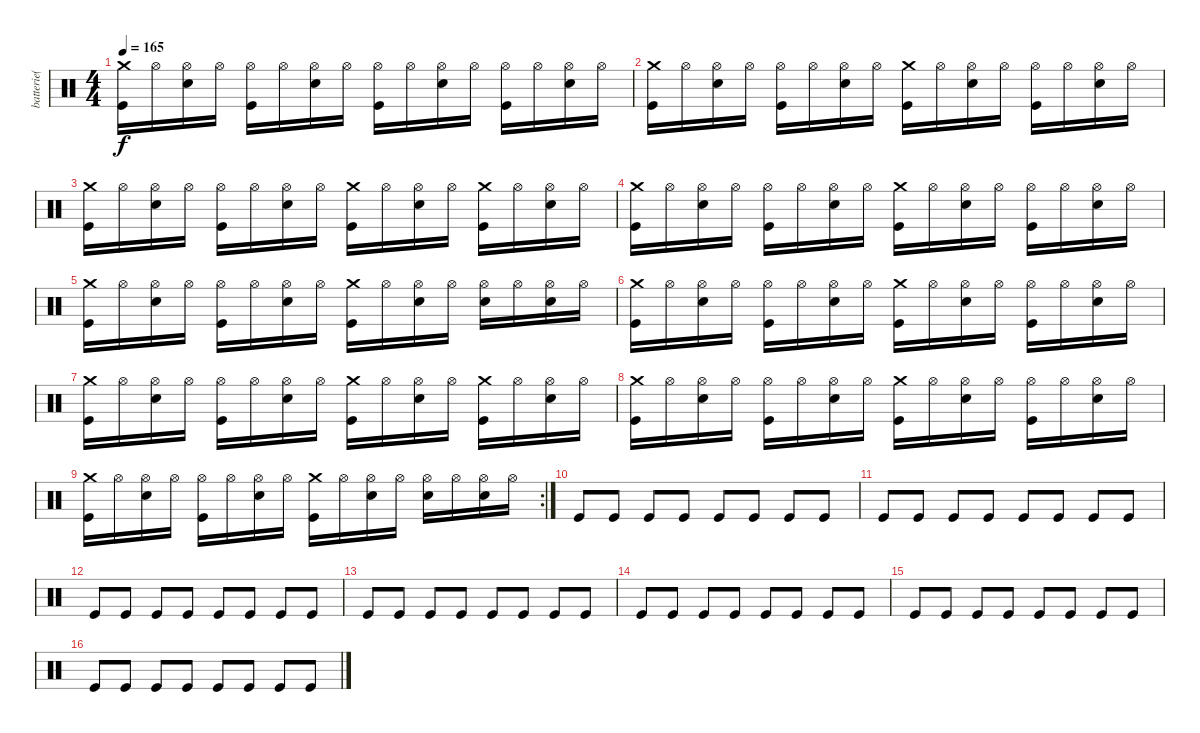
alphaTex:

\track ("batterie( Shawn )" "batterie( ") {instrument percussion}
\staff {score}
\articulation defaults
\ts (4 4)
\tempo 165
\clef neutral
\ks c
("Crash medium (hit)" "Kick (hit)").16{dy f} "Hi-Hat (open)".16 ("Hi-Hat (open)" "Snare (hit) 2").16 "Hi-Hat (open)".16 ("Hi-Hat (open)" "Kick (hit)").16 "Hi-Hat (open)".16 ("Hi-Hat (open)" "Snare (hit) 2").16 "Hi-Hat (open)".16 ("Hi-Hat (open)" "Kick (hit)").16 "Hi-Hat (open)".16 ("Hi-Hat (open)" "Snare (hit) 2").16 "Hi-Hat (open)".16 ("Hi-Hat (open)" "Kick (hit)").16 "Hi-Hat (open)".16 ("Hi-Hat (open)" "Snare (hit) 2").16 "Hi-Hat (open)".16 |
("Crash medium (hit)" "Kick (hit)").16 "Hi-Hat (open)".16 ("Hi-Hat (open)" "Snare (hit) 2").16 "Hi-Hat (open)".16 ("Hi-Hat (open)" "Kick (hit)").16 "Hi-Hat (open)".16 ("Hi-Hat (open)" "Snare (hit) 2").16 "Hi-Hat (open)".16 ("Crash medium (hit)" "Kick (hit)").16 "Hi-Hat (open)".16 ("Hi-Hat (open)" "Snare (hit) 2").16 "Hi-Hat (open)".16 ("Hi-Hat (open)" "Kick (hit)").16 "Hi-Hat (open)".16 ("Hi-Hat (open)" "Snare (hit) 2").16 "Hi-Hat (open)".16 |
("Crash medium (hit)" "Kick (hit)").16 "Hi-Hat (open)".16 ("Hi-Hat (open)" "Snare (hit) 2").16 "Hi-Hat (open)".16 ("Hi-Hat (open)" "Kick (hit)").16 "Hi-Hat (open)".16 ("Hi-Hat (open)" "Snare (hit) 2").16 "Hi-Hat (open)".16 ("Crash medium (hit)" "Kick (hit)").16 "Hi-Hat (open)".16 ("Hi-Hat (open)" "Snare (hit) 2").16 "Hi-Hat (open)".16 ("Crash medium (hit)" "Kick (hit)").16 "Hi-Hat (open)".16 ("Hi-Hat (open)" "Snare (hit) 2").16 "Hi-Hat (open)".16 |
("Crash medium (hit)" "Kick (hit)").16 "Hi-Hat (open)".16 ("Hi-Hat (open)" "Snare (hit) 2").16 "Hi-Hat (open)".16 ("Hi-Hat (open)" "Kick (hit)").16 "Hi-Hat (open)".16 ("Hi-Hat (open)" "Snare (hit) 2").16 "Hi-Hat (open)".16 ("Crash medium (hit)" "Kick (hit)").16 "Hi-Hat (open)".16 ("Hi-Hat (open)" "Snare (hit) 2").16 "Hi-Hat (open)".16 ("Hi-Hat (open)" "Kick (hit)").16 "Hi-Hat (open)".16 ("Hi-Hat (open)" "Snare (hit) 2").16 "Hi-Hat (open)".16 |
("Crash medium (hit)" "Kick (hit)").16 "Hi-Hat (open)".16 ("Hi-Hat (open)" "Snare (hit) 2").16 "Hi-Hat (open)".16 ("Hi-Hat (open)" "Kick (hit)").16 "Hi-Hat (open)".16 ("Hi-Hat (open)" "Snare (hit) 2").16 "Hi-Hat (open)".16 ("Crash medium (hit)" "Kick (hit)").16 "Hi-Hat (open)".16 ("Hi-Hat (open)" "Snare (hit) 2").16 "Hi-Hat (open)".16 ("Hi-Hat (open)" "Snare (hit) 2").16 "Hi-Hat (open)".16 ("Hi-Hat (open)" "Snare (hit) 2").16 "Hi-Hat (open)".16 |
("Crash medium (hit)" "Kick (hit)").16 "Hi-Hat (open)".16 ("Hi-Hat (open)" "Snare (hit) 2").16 "Hi-Hat (open)".16 ("Hi-Hat (open)" "Kick (hit)").16 "Hi-Hat (open)".16 ("Hi-Hat (open)" "Snare (hit) 2").16 "Hi-Hat (open)".16 ("Crash medium (hit)" "Kick (hit)").16 "Hi-Hat (open)".16 ("Hi-Hat (open)" "Snare (hit) 2").16 "Hi-Hat (open)".16 ("Hi-Hat (open)" "Kick (hit)").16 "Hi-Hat (open)".16 ("Hi-Hat (open)" "Snare (hit) 2").16 "Hi-Hat (open)".16 |
("Crash medium (hit)" "Kick (hit)").16 "Hi-Hat (open)".16 ("Hi-Hat (open)" "Snare (hit) 2").16 "Hi-Hat (open)".16 ("Hi-Hat (open)" "Kick (hit)").16 "Hi-Hat (open)".16 ("Hi-Hat (open)" "Snare (hit) 2").16 "Hi-Hat (open)".16 ("Crash medium (hit)" "Kick (hit)").16 "Hi-Hat (open)".16 ("Hi-Hat (open)" "Snare (hit) 2").16 "Hi-Hat (open)".16 ("Crash medium (hit)" "Kick (hit)").16 "Hi-Hat (open)".16 ("Hi-Hat (open)" "Snare (hit) 2").16 "Hi-Hat (open)".16 |
("Crash medium (hit)" "Kick (hit)").16 "Hi-Hat (open)".16 ("Hi-Hat (open)" "Snare (hit) 2").16 "Hi-Hat (open)".16 ("Hi-Hat (open)" "Kick (hit)").16 "Hi-Hat (open)".16 ("Hi-Hat (open)" "Snare (hit) 2").16 "Hi-Hat (open)".16 ("Crash medium (hit)" "Kick (hit)").16 "Hi-Hat (open)".16 ("Hi-Hat (open)" "Snare (hit) 2").16 "Hi-Hat (open)".16 ("Hi-Hat (open)" "Kick (hit)").16 "Hi-Hat (open)".16 ("Hi-Hat (open)" "Snare (hit) 2").16 "Hi-Hat (open)".16 |
\rc 2
("Crash medium (hit)" "Kick (hit)").16 "Hi-Hat (open)".16 ("Hi-Hat (open)" "Snare (hit) 2").16 "Hi-Hat (open)".16 ("Hi-Hat (open)" "Kick (hit)").16 "Hi-Hat (open)".16 ("Hi-Hat (open)" "Snare (hit) 2").16 "Hi-Hat (open)".16 ("Crash medium (hit)" "Kick (hit)").16 "Hi-Hat (open)".16 ("Hi-Hat (open)" "Snare (hit) 2").16 "Hi-Hat (open)".16 ("Hi-Hat (open)" "Snare (hit) 2").16 "Hi-Hat (open)".16 ("Hi-Hat (open)" "Snare (hit) 2").16 "Hi-Hat (open)".16 |
"Kick (hit)".8 "Kick (hit)".8 "Kick (hit)".8 "Kick (hit)".8 "Kick (hit)".8 "Kick (hit)".8 "Kick (hit)".8 "Kick (hit)".8 |
"Kick (hit)".8 "Kick (hit)".8 "Kick (hit)".8 "Kick (hit)".8 "Kick (hit)".8 "Kick (hit)".8 "Kick (hit)".8 "Kick (hit)".8 |
"Kick (hit)".8 "Kick (hit)".8 "Kick (hit)".8 "Kick (hit)".8 "Kick (hit)".8 "Kick (hit)".8 "Kick (hit)".8 "Kick (hit)".8 |
"Kick (hit)".8 "Kick (hit)".8 "Kick (hit)".8 "Kick (hit)".8 "Kick (hit)".8 "Kick (hit)".8 "Kick (hit)".8 "Kick (hit)".8 |
"Kick (hit)".8 "Kick (hit)".8 "Kick (hit)".8 "Kick (hit)".8 "Kick (hit)".8 "Kick (hit)".8 "Kick (hit)".8 "Kick (hit)".8 |
"Kick (hit)".8 "Kick (hit)".8 "Kick (hit)".8 "Kick (hit)".8 "Kick (hit)".8 "Kick (hit)".8 "Kick (hit)".8 "Kick (hit)".8 |
"Kick (hit)".8 "Kick (hit)".8 "Kick (hit)".8 "Kick (hit)".8 "Kick (hit)".8 "Kick (hit)".8 "Kick (hit)".8 "Kick (hit)".8
